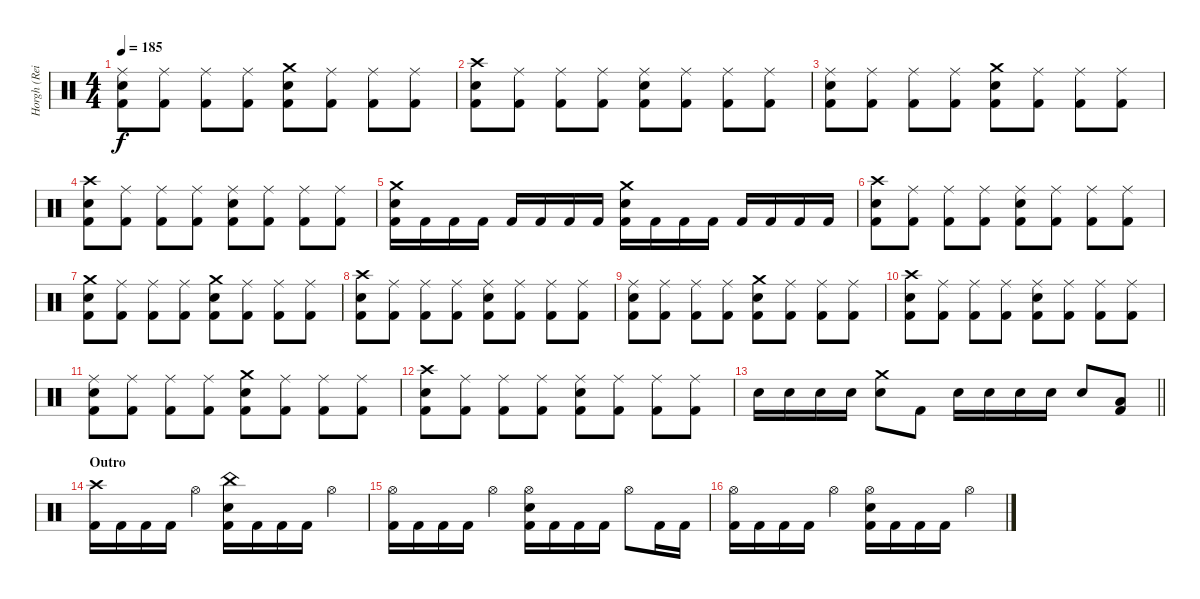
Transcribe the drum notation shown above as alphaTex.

\track ("Horgh (Reidar Horghagen)" "Horgh (Rei") {instrument percussion}
\staff {score}
\articulation defaults
\ts (4 4)
\tempo 185
\clef neutral
\ks c
("Ride (middle)" "Snare (hit) 2" "Kick (hit) 2").8{dy f} ("Ride (middle)" "Kick (hit) 2").8 ("Ride (middle)" "Kick (hit) 2").8 ("Ride (middle)" "Kick (hit) 2").8 ("Crash medium (hit)" "Snare (hit) 2" "Kick (hit) 2").8 ("Ride (middle)" "Kick (hit) 2").8 ("Ride (middle)" "Kick (hit) 2").8 ("Ride (middle)" "Kick (hit) 2").8 |
("Crash high (hit)" "Snare (hit) 2" "Kick (hit) 2").8 ("Ride (middle)" "Kick (hit) 2").8 ("Ride (middle)" "Kick (hit) 2").8 ("Ride (middle)" "Kick (hit) 2").8 ("Ride (middle)" "Snare (hit) 2" "Kick (hit) 2").8 ("Ride (middle)" "Kick (hit) 2").8 ("Ride (middle)" "Kick (hit) 2").8 ("Ride (middle)" "Kick (hit) 2").8 |
("Ride (middle)" "Snare (hit) 2" "Kick (hit) 2").8 ("Ride (middle)" "Kick (hit) 2").8 ("Ride (middle)" "Kick (hit) 2").8 ("Ride (middle)" "Kick (hit) 2").8 ("Crash medium (hit)" "Snare (hit) 2" "Kick (hit) 2").8 ("Ride (middle)" "Kick (hit) 2").8 ("Ride (middle)" "Kick (hit) 2").8 ("Ride (middle)" "Kick (hit) 2").8 |
("Crash high (hit)" "Snare (hit) 2" "Kick (hit) 2").8 ("Ride (middle)" "Kick (hit) 2").8 ("Ride (middle)" "Kick (hit) 2").8 ("Ride (middle)" "Kick (hit) 2").8 ("Ride (middle)" "Snare (hit) 2" "Kick (hit) 2").8 ("Ride (middle)" "Kick (hit) 2").8 ("Ride (middle)" "Kick (hit) 2").8 ("Ride (middle)" "Kick (hit) 2").8 |
("Crash medium (hit)" "Snare (hit) 2" "Kick (hit) 2").16 "Kick (hit) 2".16 "Kick (hit) 2".16 "Kick (hit) 2".16 "Kick (hit) 2".16 "Kick (hit) 2".16 "Kick (hit) 2".16 "Kick (hit) 2".16 ("Crash medium (hit)" "Snare (hit) 2" "Kick (hit) 2").16 "Kick (hit) 2".16 "Kick (hit) 2".16 "Kick (hit) 2".16 "Kick (hit) 2".16 "Kick (hit) 2".16 "Kick (hit) 2".16 "Kick (hit) 2".16 |
("Crash high (hit)" "Snare (hit) 2" "Kick (hit) 2").8 ("Ride (middle)" "Kick (hit) 2").8 ("Ride (middle)" "Kick (hit) 2").8 ("Ride (middle)" "Kick (hit) 2").8 ("Ride (middle)" "Snare (hit) 2" "Kick (hit) 2").8 ("Ride (middle)" "Kick (hit) 2").8 ("Ride (middle)" "Kick (hit) 2").8 ("Ride (middle)" "Kick (hit) 2").8 |
("Crash medium (hit)" "Snare (hit) 2" "Kick (hit) 2").8 ("Ride (middle)" "Kick (hit) 2").8 ("Ride (middle)" "Kick (hit) 2").8 ("Ride (middle)" "Kick (hit) 2").8 ("Crash medium (hit)" "Snare (hit) 2" "Kick (hit) 2").8 ("Ride (middle)" "Kick (hit) 2").8 ("Ride (middle)" "Kick (hit) 2").8 ("Ride (middle)" "Kick (hit) 2").8 |
("Crash high (hit)" "Snare (hit) 2" "Kick (hit) 2").8 ("Ride (middle)" "Kick (hit) 2").8 ("Ride (middle)" "Kick (hit) 2").8 ("Ride (middle)" "Kick (hit) 2").8 ("Ride (middle)" "Snare (hit) 2" "Kick (hit) 2").8 ("Ride (middle)" "Kick (hit) 2").8 ("Ride (middle)" "Kick (hit) 2").8 ("Ride (middle)" "Kick (hit) 2").8 |
("Ride (middle)" "Snare (hit) 2" "Kick (hit) 2").8 ("Ride (middle)" "Kick (hit) 2").8 ("Ride (middle)" "Kick (hit) 2").8 ("Ride (middle)" "Kick (hit) 2").8 ("Crash medium (hit)" "Snare (hit) 2" "Kick (hit) 2").8 ("Ride (middle)" "Kick (hit) 2").8 ("Ride (middle)" "Kick (hit) 2").8 ("Ride (middle)" "Kick (hit) 2").8 |
("Crash high (hit)" "Snare (hit) 2" "Kick (hit) 2").8 ("Ride (middle)" "Kick (hit) 2").8 ("Ride (middle)" "Kick (hit) 2").8 ("Ride (middle)" "Kick (hit) 2").8 ("Ride (middle)" "Snare (hit) 2" "Kick (hit) 2").8 ("Ride (middle)" "Kick (hit) 2").8 ("Ride (middle)" "Kick (hit) 2").8 ("Ride (middle)" "Kick (hit) 2").8 |
("Ride (middle)" "Snare (hit) 2" "Kick (hit) 2").8 ("Ride (middle)" "Kick (hit) 2").8 ("Ride (middle)" "Kick (hit) 2").8 ("Ride (middle)" "Kick (hit) 2").8 ("Crash medium (hit)" "Snare (hit) 2" "Kick (hit) 2").8 ("Ride (middle)" "Kick (hit) 2").8 ("Ride (middle)" "Kick (hit) 2").8 ("Ride (middle)" "Kick (hit) 2").8 |
("Crash high (hit)" "Snare (hit) 2" "Kick (hit) 2").8 ("Ride (middle)" "Kick (hit) 2").8 ("Ride (middle)" "Kick (hit) 2").8 ("Ride (middle)" "Kick (hit) 2").8 ("Ride (middle)" "Snare (hit) 2" "Kick (hit) 2").8 ("Ride (middle)" "Kick (hit) 2").8 ("Ride (middle)" "Kick (hit) 2").8 ("Ride (middle)" "Kick (hit) 2").8 |
\barLineRight lightlight "Snare (hit) 2".16 "Snare (hit) 2".16 "Snare (hit) 2".16 "Snare (hit) 2".16
("Crash medium (hit)" "Snare (hit) 2").8 "Kick (hit) 2".8 "Snare (hit) 2".16 "Snare (hit) 2".16 "Snare (hit) 2".16 "Snare (hit) 2".16 "Snare (hit) 2".8 ("Low Floor Tom (hit)" "Kick (hit) 2").8 |
\section ("" "Outro")
("Crash high (hit)" "Kick (hit) 2").16 "Kick (hit) 2".16 "Kick (hit) 2".16 "Kick (hit) 2".16 "Hi-Hat (open)".4 ("China (hit)" "Snare (hit) 2" "Kick (hit) 2").16 "Kick (hit) 2".16 "Kick (hit) 2".16 "Kick (hit) 2".16 "Hi-Hat (open)".4 |
("Hi-Hat (open)" "Kick (hit) 2").16 "Kick (hit) 2".16 "Kick (hit) 2".16 "Kick (hit) 2".16 "Hi-Hat (open)".4 ("Hi-Hat (open)" "Snare (hit) 2" "Kick (hit) 2").16 "Kick (hit) 2".16 "Kick (hit) 2".16 "Kick (hit) 2".16 "Hi-Hat (open)".8 "Kick (hit) 2".16 "Kick (hit) 2".16 |
("Hi-Hat (open)" "Kick (hit) 2").16 "Kick (hit) 2".16 "Kick (hit) 2".16 "Kick (hit) 2".16 "Hi-Hat (open)".4 ("Hi-Hat (open)" "Snare (hit) 2" "Kick (hit) 2").16 "Kick (hit) 2".16 "Kick (hit) 2".16 "Kick (hit) 2".16 "Hi-Hat (open)".4
